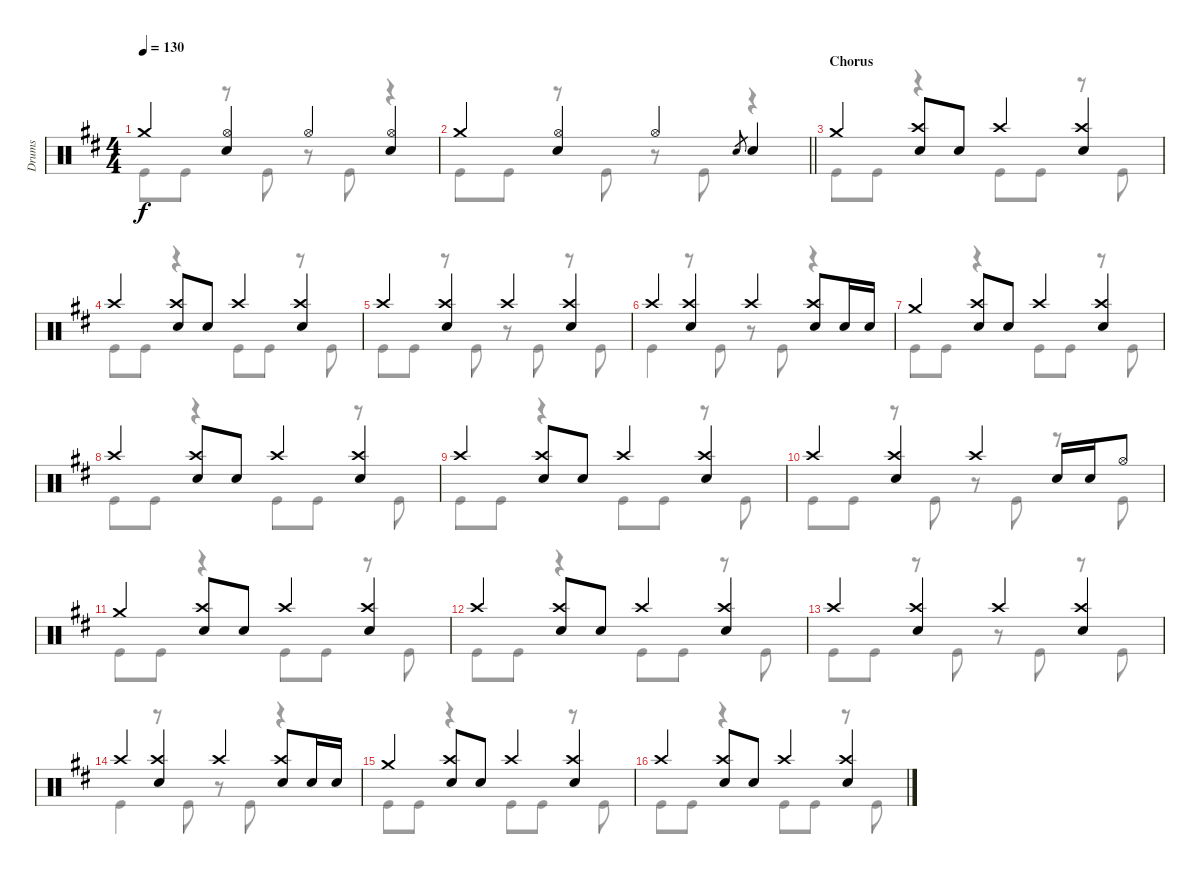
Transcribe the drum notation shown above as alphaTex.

\track ("Drums" "Drums") {instrument percussion}
\staff {score}
\articulation defaults
\voice
\ts (4 4)
\tempo 130
\clef neutral
\ks d "Crash medium (hit)".4{dy f}
("Hi-Hat (open)" "Electric Snare (hit)").4 "Hi-Hat (open)".4 ("Hi-Hat (open)" "Electric Snare (hit)").4 |
\barLineRight lightlight "Crash medium (hit)".4
("Hi-Hat (open)" "Electric Snare (hit)").4 "Hi-Hat (open)".4 "Electric Snare (hit)".8{gr} "Electric Snare (hit)".4 |
\section ("" "Chorus")
"Crash medium (hit)".4 ("Crash high (hit)" "Electric Snare (hit)").8 "Electric Snare (hit)".8 "Crash high (hit)".4 ("Crash high (hit)" "Electric Snare (hit)").4 |
"Crash high (hit)".4 ("Crash high (hit)" "Electric Snare (hit)").8 "Electric Snare (hit)".8 "Crash high (hit)".4 ("Crash high (hit)" "Electric Snare (hit)").4 |
"Crash high (hit)".4 ("Crash high (hit)" "Electric Snare (hit)").4 "Crash high (hit)".4 ("Crash high (hit)" "Electric Snare (hit)").4 |
"Crash high (hit)".4 ("Crash high (hit)" "Electric Snare (hit)").4 "Crash high (hit)".4 ("Crash high (hit)" "Electric Snare (hit)").8 "Electric Snare (hit)".16 "Electric Snare (hit)".16 |
"Crash medium (hit)".4 ("Crash high (hit)" "Electric Snare (hit)").8 "Electric Snare (hit)".8 "Crash high (hit)".4 ("Crash high (hit)" "Electric Snare (hit)").4 |
"Crash high (hit)".4 ("Crash high (hit)" "Electric Snare (hit)").8 "Electric Snare (hit)".8 "Crash high (hit)".4 ("Crash high (hit)" "Electric Snare (hit)").4 |
"Crash high (hit)".4 ("Crash high (hit)" "Electric Snare (hit)").8 "Electric Snare (hit)".8 "Crash high (hit)".4 ("Crash high (hit)" "Electric Snare (hit)").4 |
"Crash high (hit)".4 ("Crash high (hit)" "Electric Snare (hit)").4 "Crash high (hit)".4 "Electric Snare (hit)".16 "Electric Snare (hit)".16 "Hi-Hat (open)".8 |
"Crash medium (hit)".4 ("Crash high (hit)" "Electric Snare (hit)").8 "Electric Snare (hit)".8 "Crash high (hit)".4 ("Crash high (hit)" "Electric Snare (hit)").4 |
"Crash high (hit)".4 ("Crash high (hit)" "Electric Snare (hit)").8 "Electric Snare (hit)".8 "Crash high (hit)".4 ("Crash high (hit)" "Electric Snare (hit)").4 |
"Crash high (hit)".4 ("Crash high (hit)" "Electric Snare (hit)").4 "Crash high (hit)".4 ("Crash high (hit)" "Electric Snare (hit)").4 |
"Crash high (hit)".4 ("Crash high (hit)" "Electric Snare (hit)").4 "Crash high (hit)".4 ("Crash high (hit)" "Electric Snare (hit)").8 "Electric Snare (hit)".16 "Electric Snare (hit)".16 |
"Crash medium (hit)".4 ("Crash high (hit)" "Electric Snare (hit)").8 "Electric Snare (hit)".8 "Crash high (hit)".4 ("Crash high (hit)" "Electric Snare (hit)").4 |
"Crash high (hit)".4 ("Crash high (hit)" "Electric Snare (hit)").8 "Electric Snare (hit)".8 "Crash high (hit)".4 ("Crash high (hit)" "Electric Snare (hit)").4
\voice
\clef neutral
\ottava regular
\simile none
\ks d "Kick (hit)".8{dy f} "Kick (hit)".8
r.8 "Kick (hit)".8 r.8 "Kick (hit)".8 r.4 |
\barLineRight lightlight "Kick (hit)".8 "Kick (hit)".8
r.8 "Kick (hit)".8 r.8 "Kick (hit)".8 r.4 |
"Kick (hit)".8 "Kick (hit)".8 r.4 "Kick (hit)".8 "Kick (hit)".8 r.8 "Kick (hit)".8 |
"Kick (hit)".8 "Kick (hit)".8 r.4 "Kick (hit)".8 "Kick (hit)".8 r.8 "Kick (hit)".8 |
"Kick (hit)".8 "Kick (hit)".8 r.8 "Kick (hit)".8 r.8 "Kick (hit)".8 r.8 "Kick (hit)".8 |
"Kick (hit)".4 r.8 "Kick (hit)".8 r.8 "Kick (hit)".8 r.4 |
"Kick (hit)".8 "Kick (hit)".8 r.4 "Kick (hit)".8 "Kick (hit)".8 r.8 "Kick (hit)".8 |
"Kick (hit)".8 "Kick (hit)".8 r.4 "Kick (hit)".8 "Kick (hit)".8 r.8 "Kick (hit)".8 |
"Kick (hit)".8 "Kick (hit)".8 r.4 "Kick (hit)".8 "Kick (hit)".8 r.8 "Kick (hit)".8 |
"Kick (hit)".8 "Kick (hit)".8 r.8 "Kick (hit)".8 r.8 "Kick (hit)".8 r.8 "Kick (hit)".8 |
"Kick (hit)".8 "Kick (hit)".8 r.4 "Kick (hit)".8 "Kick (hit)".8 r.8 "Kick (hit)".8 |
"Kick (hit)".8 "Kick (hit)".8 r.4 "Kick (hit)".8 "Kick (hit)".8 r.8 "Kick (hit)".8 |
"Kick (hit)".8 "Kick (hit)".8 r.8 "Kick (hit)".8 r.8 "Kick (hit)".8 r.8 "Kick (hit)".8 |
"Kick (hit)".4 r.8 "Kick (hit)".8 r.8 "Kick (hit)".8 r.4 |
"Kick (hit)".8 "Kick (hit)".8 r.4 "Kick (hit)".8 "Kick (hit)".8 r.8 "Kick (hit)".8 |
"Kick (hit)".8 "Kick (hit)".8 r.4 "Kick (hit)".8 "Kick (hit)".8 r.8 "Kick (hit)".8
